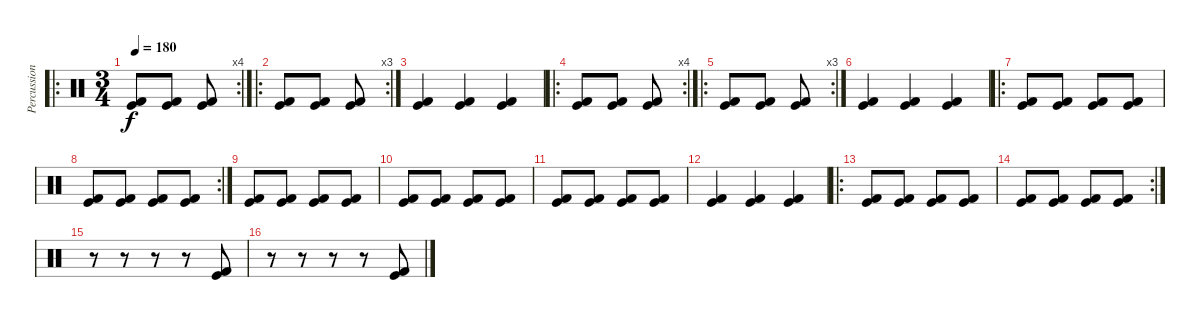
\track ("Percussion" "Percussion") {instrument percussion}
\staff {score}
\articulation defaults
\ro
\rc 4
\ts (3 4)
\tempo 180
\clef neutral
\ks c
("Kick (hit) 2" "Kick (hit)").8{dy f} ("Kick (hit) 2" "Kick (hit)").8 ("Kick (hit) 2" "Kick (hit)").8 |
\ro
\rc 3
("Kick (hit) 2" "Kick (hit)").8 ("Kick (hit) 2" "Kick (hit)").8 ("Kick (hit) 2" "Kick (hit)").8 |
("Kick (hit) 2" "Kick (hit)").4 ("Kick (hit) 2" "Kick (hit)").4 ("Kick (hit) 2" "Kick (hit)").4 |
\ro
\rc 4
("Kick (hit) 2" "Kick (hit)").8 ("Kick (hit) 2" "Kick (hit)").8 ("Kick (hit) 2" "Kick (hit)").8 |
\ro
\rc 3
("Kick (hit) 2" "Kick (hit)").8 ("Kick (hit) 2" "Kick (hit)").8 ("Kick (hit) 2" "Kick (hit)").8 |
("Kick (hit) 2" "Kick (hit)").4 ("Kick (hit) 2" "Kick (hit)").4 ("Kick (hit) 2" "Kick (hit)").4 |
\ro
("Kick (hit) 2" "Kick (hit)").8 ("Kick (hit) 2" "Kick (hit)").8 ("Kick (hit) 2" "Kick (hit)").8 ("Kick (hit) 2" "Kick (hit)").8 |
\rc 2
("Kick (hit) 2" "Kick (hit)").8 ("Kick (hit) 2" "Kick (hit)").8 ("Kick (hit) 2" "Kick (hit)").8 ("Kick (hit) 2" "Kick (hit)").8 |
("Kick (hit) 2" "Kick (hit)").8 ("Kick (hit) 2" "Kick (hit)").8 ("Kick (hit) 2" "Kick (hit)").8 ("Kick (hit) 2" "Kick (hit)").8 |
("Kick (hit) 2" "Kick (hit)").8 ("Kick (hit) 2" "Kick (hit)").8 ("Kick (hit) 2" "Kick (hit)").8 ("Kick (hit) 2" "Kick (hit)").8 |
("Kick (hit) 2" "Kick (hit)").8 ("Kick (hit) 2" "Kick (hit)").8 ("Kick (hit) 2" "Kick (hit)").8 ("Kick (hit) 2" "Kick (hit)").8 |
("Kick (hit) 2" "Kick (hit)").4 ("Kick (hit) 2" "Kick (hit)").4 ("Kick (hit) 2" "Kick (hit)").4 |
\ro
("Kick (hit) 2" "Kick (hit)").8 ("Kick (hit) 2" "Kick (hit)").8 ("Kick (hit) 2" "Kick (hit)").8 ("Kick (hit) 2" "Kick (hit)").8 |
\rc 2
("Kick (hit) 2" "Kick (hit)").8 ("Kick (hit) 2" "Kick (hit)").8 ("Kick (hit) 2" "Kick (hit)").8 ("Kick (hit) 2" "Kick (hit)").8 |
r.8 r.8 r.8 r.8 ("Kick (hit) 2" "Kick (hit)").8 |
r.8 r.8 r.8 r.8 ("Kick (hit) 2" "Kick (hit)").8
